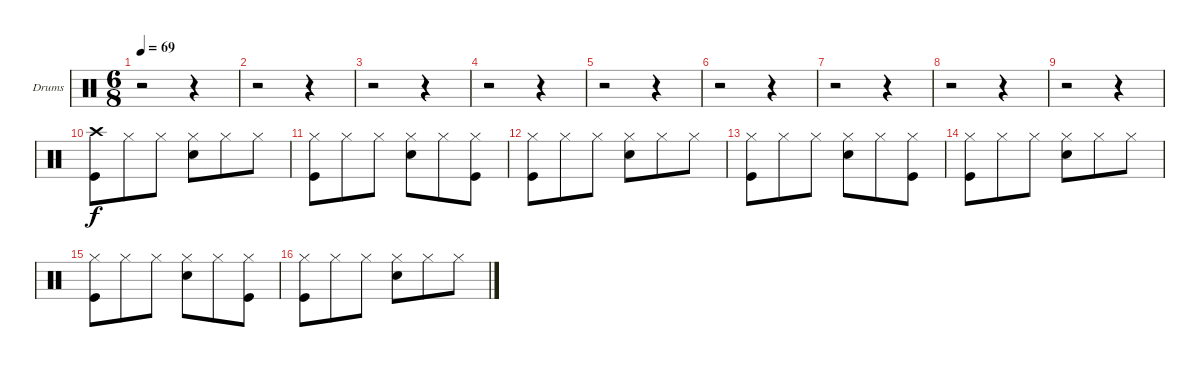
\defaultSystemsLayout 4
\bracketExtendMode groupsimilarinstruments
\firstSystemTrackNameOrientation horizontal
\otherSystemsTrackNameOrientation horizontal
\track ("Удар" "Drums") {instrument percussion}
\staff {score}
\articulation defaults
\ts (6 8)
\tempo 69
\clef neutral
\ks c
r.2{dy f} r.4 |
r.2 r.4 |
r.2 r.4 |
r.2 r.4 |
r.2 r.4 |
r.2 r.4 |
r.2 r.4 |
r.2 r.4 |
r.2 r.4 |
("Crash high (hit)" "Kick (hit)").8 "Hi-Hat (closed)".8 "Hi-Hat (closed)".8 ("Hi-Hat (closed)" "Snare (hit) 2").8 "Hi-Hat (closed)".8 "Hi-Hat (closed)".8 |
("Hi-Hat (closed)" "Kick (hit)").8 "Hi-Hat (closed)".8 "Hi-Hat (closed)".8 ("Hi-Hat (closed)" "Snare (hit) 2").8 "Hi-Hat (closed)".8 ("Hi-Hat (closed)" "Kick (hit)").8 |
("Hi-Hat (closed)" "Kick (hit)").8 "Hi-Hat (closed)".8 "Hi-Hat (closed)".8 ("Hi-Hat (closed)" "Snare (hit) 2").8 "Hi-Hat (closed)".8 "Hi-Hat (closed)".8 |
("Hi-Hat (closed)" "Kick (hit)").8 "Hi-Hat (closed)".8 "Hi-Hat (closed)".8 ("Hi-Hat (closed)" "Snare (hit) 2").8 "Hi-Hat (closed)".8 ("Hi-Hat (closed)" "Kick (hit)").8 |
("Hi-Hat (closed)" "Kick (hit)").8 "Hi-Hat (closed)".8 "Hi-Hat (closed)".8 ("Hi-Hat (closed)" "Snare (hit) 2").8 "Hi-Hat (closed)".8 "Hi-Hat (closed)".8 |
("Hi-Hat (closed)" "Kick (hit)").8 "Hi-Hat (closed)".8 "Hi-Hat (closed)".8 ("Hi-Hat (closed)" "Snare (hit) 2").8 "Hi-Hat (closed)".8 ("Hi-Hat (closed)" "Kick (hit)").8 |
("Hi-Hat (closed)" "Kick (hit)").8 "Hi-Hat (closed)".8 "Hi-Hat (closed)".8 ("Hi-Hat (closed)" "Snare (hit) 2").8 "Hi-Hat (closed)".8 "Hi-Hat (closed)".8
